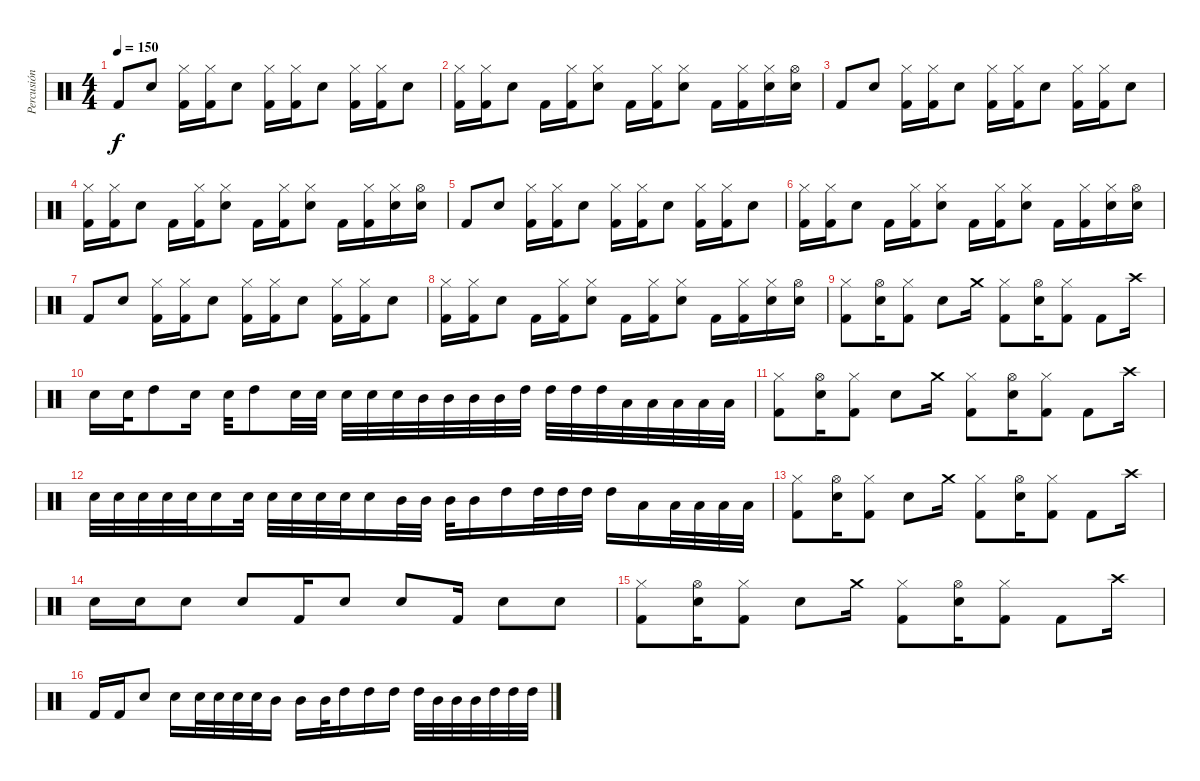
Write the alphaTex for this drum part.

\track ("Percusión" "Percusión") {instrument percussion}
\staff {score}
\articulation defaults
\ts (4 4)
\tempo 150
\clef neutral
\ks c "Kick (hit) 2".8{dy f} "Snare (hit) 2".8
("Hi-Hat (closed)" "Kick (hit) 2").16 ("Hi-Hat (closed)" "Kick (hit) 2").16 "Snare (hit) 2".8 ("Hi-Hat (closed)" "Kick (hit) 2").16 ("Hi-Hat (closed)" "Kick (hit) 2").16 "Snare (hit) 2".8 ("Hi-Hat (closed)" "Kick (hit) 2").16 ("Hi-Hat (closed)" "Kick (hit) 2").16 "Snare (hit) 2".8 |
("Hi-Hat (closed)" "Kick (hit) 2").16 ("Hi-Hat (closed)" "Kick (hit) 2").16 "Snare (hit) 2".8 "Kick (hit) 2".16 ("Hi-Hat (closed)" "Kick (hit) 2").16 ("Hi-Hat (closed)" "Snare (hit) 2").8 "Kick (hit) 2".16 ("Hi-Hat (closed)" "Kick (hit) 2").16 ("Hi-Hat (closed)" "Snare (hit) 2").8 "Kick (hit) 2".16 ("Hi-Hat (closed)" "Kick (hit) 2").16 ("Hi-Hat (closed)" "Snare (hit) 2").16 ("Hi-Hat (open)" "Snare (hit) 2").16 |
"Kick (hit) 2".8 "Snare (hit) 2".8 ("Hi-Hat (closed)" "Kick (hit) 2").16 ("Hi-Hat (closed)" "Kick (hit) 2").16 "Snare (hit) 2".8 ("Hi-Hat (closed)" "Kick (hit) 2").16 ("Hi-Hat (closed)" "Kick (hit) 2").16 "Snare (hit) 2".8 ("Hi-Hat (closed)" "Kick (hit) 2").16 ("Hi-Hat (closed)" "Kick (hit) 2").16 "Snare (hit) 2".8 |
("Hi-Hat (closed)" "Kick (hit) 2").16 ("Hi-Hat (closed)" "Kick (hit) 2").16 "Snare (hit) 2".8 "Kick (hit) 2".16 ("Hi-Hat (closed)" "Kick (hit) 2").16 ("Hi-Hat (closed)" "Snare (hit) 2").8 "Kick (hit) 2".16 ("Hi-Hat (closed)" "Kick (hit) 2").16 ("Hi-Hat (closed)" "Snare (hit) 2").8 "Kick (hit) 2".16 ("Hi-Hat (closed)" "Kick (hit) 2").16 ("Hi-Hat (closed)" "Snare (hit) 2").16 ("Hi-Hat (open)" "Snare (hit) 2").16 |
"Kick (hit) 2".8 "Snare (hit) 2".8 ("Hi-Hat (closed)" "Kick (hit) 2").16 ("Hi-Hat (closed)" "Kick (hit) 2").16 "Snare (hit) 2".8 ("Hi-Hat (closed)" "Kick (hit) 2").16 ("Hi-Hat (closed)" "Kick (hit) 2").16 "Snare (hit) 2".8 ("Hi-Hat (closed)" "Kick (hit) 2").16 ("Hi-Hat (closed)" "Kick (hit) 2").16 "Snare (hit) 2".8 |
("Hi-Hat (closed)" "Kick (hit) 2").16 ("Hi-Hat (closed)" "Kick (hit) 2").16 "Snare (hit) 2".8 "Kick (hit) 2".16 ("Hi-Hat (closed)" "Kick (hit) 2").16 ("Hi-Hat (closed)" "Snare (hit) 2").8 "Kick (hit) 2".16 ("Hi-Hat (closed)" "Kick (hit) 2").16 ("Hi-Hat (closed)" "Snare (hit) 2").8 "Kick (hit) 2".16 ("Hi-Hat (closed)" "Kick (hit) 2").16 ("Hi-Hat (closed)" "Snare (hit) 2").16 ("Hi-Hat (open)" "Snare (hit) 2").16 |
"Kick (hit) 2".8 "Snare (hit) 2".8 ("Hi-Hat (closed)" "Kick (hit) 2").16 ("Hi-Hat (closed)" "Kick (hit) 2").16 "Snare (hit) 2".8 ("Hi-Hat (closed)" "Kick (hit) 2").16 ("Hi-Hat (closed)" "Kick (hit) 2").16 "Snare (hit) 2".8 ("Hi-Hat (closed)" "Kick (hit) 2").16 ("Hi-Hat (closed)" "Kick (hit) 2").16 "Snare (hit) 2".8 |
("Hi-Hat (closed)" "Kick (hit) 2").16 ("Hi-Hat (closed)" "Kick (hit) 2").16 "Snare (hit) 2".8 "Kick (hit) 2".16 ("Hi-Hat (closed)" "Kick (hit) 2").16 ("Hi-Hat (closed)" "Snare (hit) 2").8 "Kick (hit) 2".16 ("Hi-Hat (closed)" "Kick (hit) 2").16 ("Hi-Hat (closed)" "Snare (hit) 2").8 "Kick (hit) 2".16 ("Hi-Hat (closed)" "Kick (hit) 2").16 ("Hi-Hat (closed)" "Snare (hit) 2").16 ("Hi-Hat (open)" "Snare (hit) 2").16 |
("Kick (hit) 2" "Hi-Hat (closed)").8 ("Snare (hit) 2" "Hi-Hat (open)").16 ("Kick (hit) 2" "Hi-Hat (closed)").8 "Snare (hit) 2".8 "Crash medium (hit)".16 ("Kick (hit) 2" "Hi-Hat (closed)").8 ("Snare (hit) 2" "Hi-Hat (open)").16 ("Kick (hit) 2" "Hi-Hat (closed)").8 "Kick (hit) 2".8 "Crash high (hit)".16 |
"Snare (hit) 2".16 "Snare (hit) 2".32 "High Tom (hit)".8 "Snare (hit) 2".16 "Snare (hit) 2".32 "High Tom (hit)".8 "Snare (hit) 2".32 "Snare (hit) 2".32 "Snare (hit) 2".32 "Snare (hit) 2".32 "Snare (hit) 2".32 "Mid Tom (hit)".32 "Mid Tom (hit)".32 "Mid Tom (hit)".32 "Mid Tom (hit)".32 "High Tom (hit)".32 "High Tom (hit)".32 "High Tom (hit)".32 "High Tom (hit)".32 "Low Floor Tom (hit)".32 "Low Floor Tom (hit)".32 "Low Floor Tom (hit)".32 "Low Floor Tom (hit)".32 "Low Floor Tom (hit)".32 |
("Kick (hit) 2" "Hi-Hat (closed)").8 ("Snare (hit) 2" "Hi-Hat (open)").16 ("Kick (hit) 2" "Hi-Hat (closed)").8 "Snare (hit) 2".8 "Crash medium (hit)".16 ("Kick (hit) 2" "Hi-Hat (closed)").8 ("Snare (hit) 2" "Hi-Hat (open)").16 ("Kick (hit) 2" "Hi-Hat (closed)").8 "Kick (hit) 2".8 "Crash high (hit)".16 |
"Snare (hit) 2".32 "Snare (hit) 2".32 "Snare (hit) 2".32 "Snare (hit) 2".32 "Snare (hit) 2".32 "Snare (hit) 2".16 "Snare (hit) 2".32 "Snare (hit) 2".32 "Snare (hit) 2".32 "Snare (hit) 2".32 "Snare (hit) 2".32 "Snare (hit) 2".16 "Mid Tom (hit)".32 "Mid Tom (hit)".32 "Mid Tom (hit)".32 "Mid Tom (hit)".16 "High Tom (hit)".16 "High Tom (hit)".32 "High Tom (hit)".32 "High Tom (hit)".32 "High Tom (hit)".16 "Low Floor Tom (hit)".16 "Low Floor Tom (hit)".32 "Low Floor Tom (hit)".32 "Low Floor Tom (hit)".32 "Low Floor Tom (hit)".32 |
("Kick (hit) 2" "Hi-Hat (closed)").8 ("Snare (hit) 2" "Hi-Hat (open)").16 ("Kick (hit) 2" "Hi-Hat (closed)").8 "Snare (hit) 2".8 "Crash medium (hit)".16 ("Kick (hit) 2" "Hi-Hat (closed)").8 ("Snare (hit) 2" "Hi-Hat (open)").16 ("Kick (hit) 2" "Hi-Hat (closed)").8 "Kick (hit) 2".8 "Crash high (hit)".16 |
"Snare (hit) 2".16 "Snare (hit) 2".16 "Snare (hit) 2".8 "Snare (hit) 2".8 "Kick (hit) 2".16 "Snare (hit) 2".8 "Snare (hit) 2".8 "Kick (hit) 2".16 "Snare (hit) 2".8 "Snare (hit) 2".8 |
("Kick (hit) 2" "Hi-Hat (closed)").8 ("Snare (hit) 2" "Hi-Hat (open)").16 ("Kick (hit) 2" "Hi-Hat (closed)").8 "Snare (hit) 2".8 "Crash medium (hit)".16 ("Kick (hit) 2" "Hi-Hat (closed)").8 ("Snare (hit) 2" "Hi-Hat (open)").16 ("Kick (hit) 2" "Hi-Hat (closed)").8 "Kick (hit) 2".8 "Crash high (hit)".16 |
"Kick (hit) 2".16 "Kick (hit) 2".16 "Snare (hit) 2".8 "Snare (hit) 2".16 "Snare (hit) 2".32 "Snare (hit) 2".32 "Snare (hit) 2".32 "Snare (hit) 2".32 "Mid Tom (hit)".16 "Mid Tom (hit)".16 "Mid Tom (hit)".32 "High Tom (hit)".16 "High Tom (hit)".16 "High Tom (hit)".16 "High Tom (hit)".32 "Mid Tom (hit)".32 "Mid Tom (hit)".32 "Mid Tom (hit)".32 "High Tom (hit)".32 "High Tom (hit)".32 "High Tom (hit)".32
